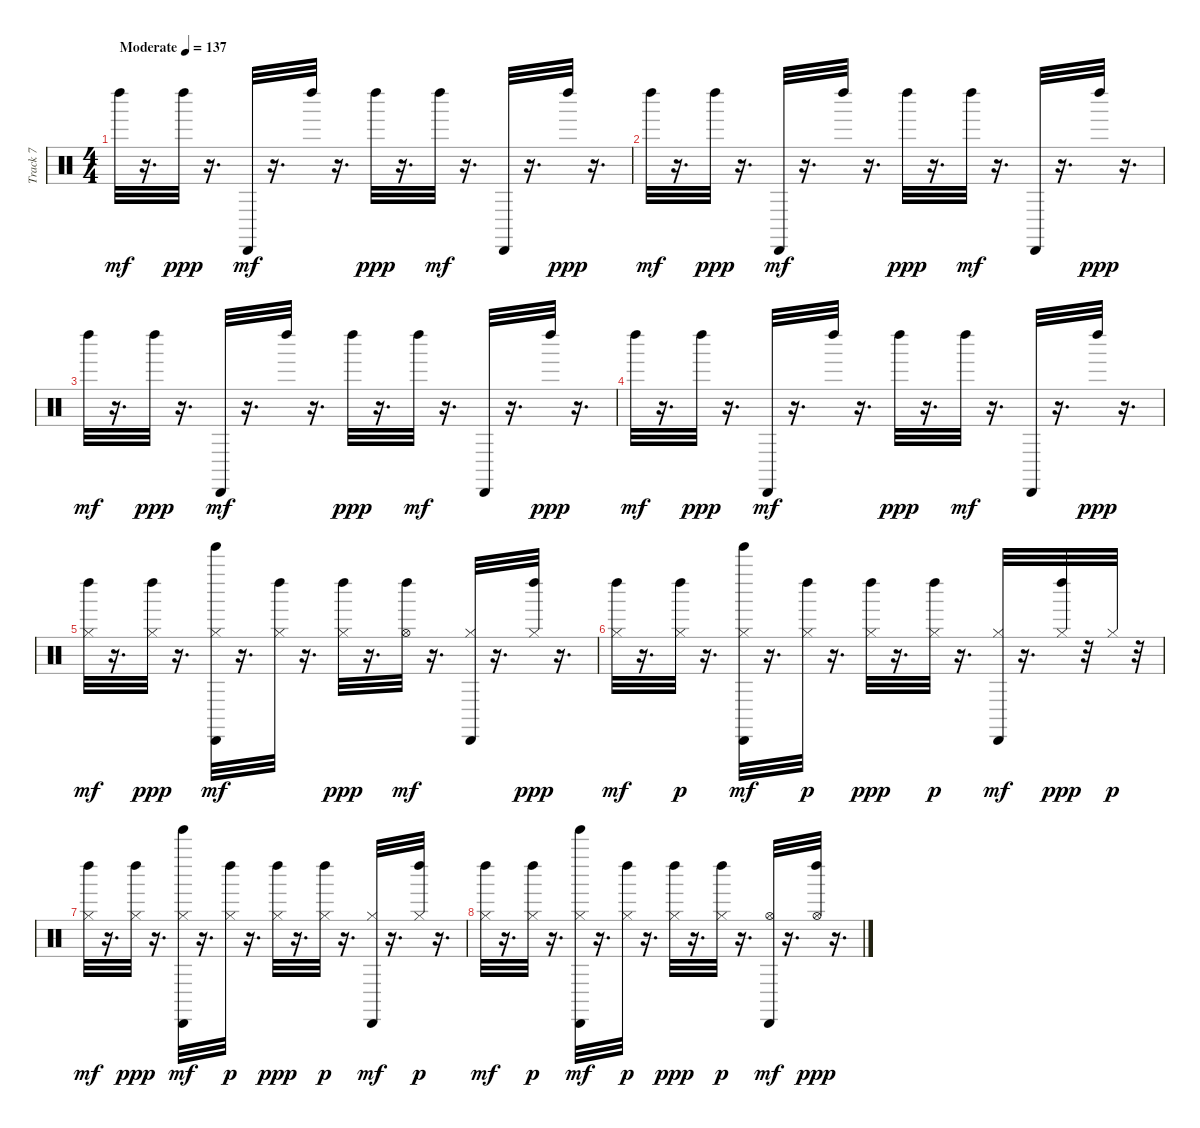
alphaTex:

\track ("Track 7" "Track 7") {instrument percussion}
\staff {score}
\articulation defaults
\ts (4 4)
\tempo (137 "Moderate")
\clef neutral
\ks c "Left Maraca (hit)".32{dy mf}
r.16{d} "Left Maraca (hit)".32{dy ppp} r.16{d} "Cabasa (hit)".32{dy mf} r.16{d} "Left Maraca (hit)".32 r.16{d} "Left Maraca (hit)".32{dy ppp} r.16{d} "Left Maraca (hit)".32{dy mf} r.16{d} "Cabasa (hit)".32 r.16{d} "Left Maraca (hit)".32{dy ppp} r.16{d} |
"Left Maraca (hit)".32{dy mf} r.16{d} "Left Maraca (hit)".32{dy ppp} r.16{d} "Cabasa (hit)".32{dy mf} r.16{d} "Left Maraca (hit)".32 r.16{d} "Left Maraca (hit)".32{dy ppp} r.16{d} "Left Maraca (hit)".32{dy mf} r.16{d} "Cabasa (hit)".32 r.16{d} "Left Maraca (hit)".32{dy ppp} r.16{d} |
"Left Maraca (hit)".32{dy mf} r.16{d} "Left Maraca (hit)".32{dy ppp} r.16{d} "Cabasa (hit)".32{dy mf} r.16{d} "Left Maraca (hit)".32 r.16{d} "Left Maraca (hit)".32{dy ppp} r.16{d} "Left Maraca (hit)".32{dy mf} r.16{d} "Cabasa (hit)".32 r.16{d} "Left Maraca (hit)".32{dy ppp} r.16{d} |
"Left Maraca (hit)".32{dy mf} r.16{d} "Left Maraca (hit)".32{dy ppp} r.16{d} "Cabasa (hit)".32{dy mf} r.16{d} "Left Maraca (hit)".32 r.16{d} "Left Maraca (hit)".32{dy ppp} r.16{d} "Left Maraca (hit)".32{dy mf} r.16{d} "Cabasa (hit)".32 r.16{d} "Left Maraca (hit)".32{dy ppp} r.16{d} |
("Hi-Hat (closed)" "Left Maraca (hit)").32{dy mf} r.16{d} ("Hi-Hat (closed)" "Left Maraca (hit)").32{dy ppp} r.16{d} ("Tinkle Bell (hit)" "Hi-Hat (closed)" "Cabasa (hit)").32{dy mf} r.16{d} ("Hi-Hat (closed)" "Left Maraca (hit)").32 r.16{d} ("Hi-Hat (closed)" "Left Maraca (hit)").32{dy ppp} r.16{d} ("Hi-Hat (open)" "Left Maraca (hit)").32{dy mf} r.16{d} ("Hi-Hat (closed)" "Cabasa (hit)").32 r.16{d} ("Hi-Hat (closed)" "Left Maraca (hit)").32{dy ppp} r.16{d} |
("Hi-Hat (closed)" "Left Maraca (hit)").32{dy mf} r.16{d} ("Left Maraca (hit)" "Hi-Hat (closed)").32{dy p} r.16{d} ("Tinkle Bell (hit)" "Cabasa (hit)" "Hi-Hat (closed)").32{dy mf} r.16{d} ("Left Maraca (hit)" "Hi-Hat (closed)").32{dy p} r.16{d} ("Left Maraca (hit)" "Hi-Hat (closed)").32{dy ppp} r.16{d} ("Left Maraca (hit)" "Hi-Hat (closed)").32{dy p} r.16{d} ("Hi-Hat (closed)" "Cabasa (hit)").32{dy mf} r.16{d} ("Hi-Hat (closed)" "Left Maraca (hit)").32{dy ppp} r.32 "Hi-Hat (closed)".32{dy p} r.32 |
("Hi-Hat (closed)" "Left Maraca (hit)").32{dy mf} r.16{d} ("Hi-Hat (closed)" "Left Maraca (hit)").32{dy ppp} r.16{d} ("Tinkle Bell (hit)" "Cabasa (hit)" "Hi-Hat (closed)").32{dy mf} r.16{d} ("Left Maraca (hit)" "Hi-Hat (closed)").32{dy p} r.16{d} ("Left Maraca (hit)" "Hi-Hat (closed)").32{dy ppp} r.16{d} ("Left Maraca (hit)" "Hi-Hat (closed)").32{dy p} r.16{d} ("Cabasa (hit)" "Hi-Hat (closed)").32{dy mf} r.16{d} ("Left Maraca (hit)" "Hi-Hat (closed)").32{dy p} r.16{d} |
("Left Maraca (hit)" "Hi-Hat (closed)").32{dy mf} r.16{d} ("Left Maraca (hit)" "Hi-Hat (closed)").32{dy p} r.16{d} ("Tinkle Bell (hit)" "Cabasa (hit)" "Hi-Hat (closed)").32{dy mf} r.16{d} ("Left Maraca (hit)" "Hi-Hat (closed)").32{dy p} r.16{d} ("Left Maraca (hit)" "Hi-Hat (closed)").32{dy ppp} r.16{d} ("Left Maraca (hit)" "Hi-Hat (closed)").32{dy p} r.16{d} ("Hi-Hat (open)" "Cabasa (hit)").32{dy mf} r.16{d} ("Hi-Hat (open)" "Left Maraca (hit)").32{dy ppp} r.16{d}
